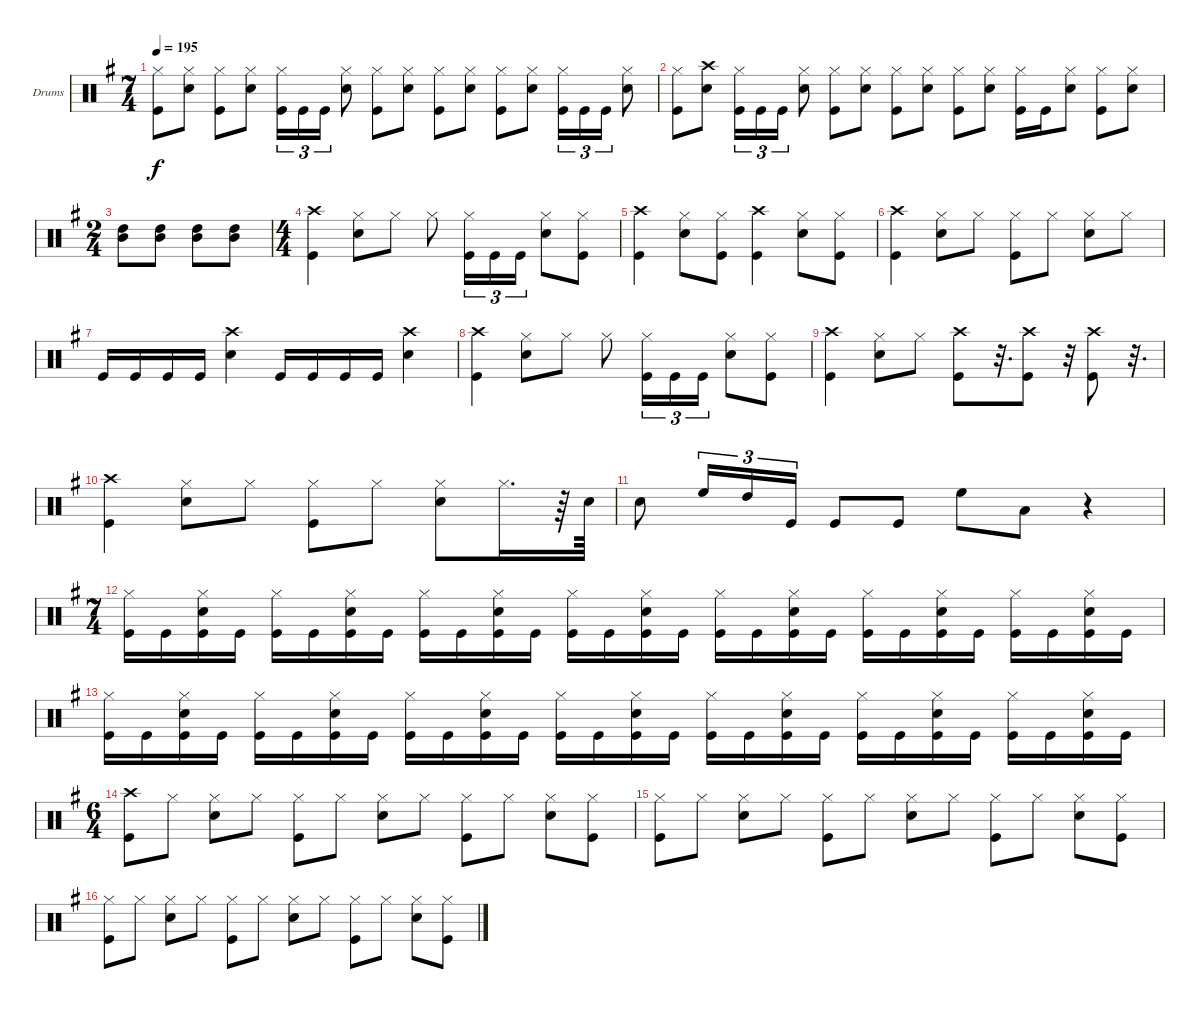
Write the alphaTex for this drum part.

\defaultSystemsLayout 4
\bracketExtendMode groupsimilarinstruments
\firstSystemTrackNameOrientation horizontal
\otherSystemsTrackNameOrientation horizontal
\track ("Drumkit" "Drums") {instrument percussion}
\staff {score}
\articulation defaults
\ts (7 4)
\tempo 195
\clef neutral
\ks g
("Hi-Hat (closed)" "Kick (hit)").8{dy f} ("Snare (hit) 2" "Hi-Hat (closed)").8 ("Hi-Hat (closed)" "Kick (hit)").8 ("Snare (hit) 2" "Hi-Hat (closed)").8 ("Hi-Hat (closed)" "Kick (hit)").16{tu (3 2)} "Kick (hit)".16{tu (3 2)} "Kick (hit)".16{tu (3 2)} ("Snare (hit) 2" "Hi-Hat (closed)").8 ("Hi-Hat (closed)" "Kick (hit)").8 ("Snare (hit) 2" "Hi-Hat (closed)").8 ("Hi-Hat (closed)" "Kick (hit)").8 ("Snare (hit) 2" "Hi-Hat (closed)").8 ("Kick (hit)" "Hi-Hat (closed)").8 ("Snare (hit) 2" "Hi-Hat (closed)").8 ("Kick (hit)" "Hi-Hat (closed)").16{tu (3 2)} "Kick (hit)".16{tu (3 2)} "Kick (hit)".16{tu (3 2)} ("Snare (hit) 2" "Hi-Hat (closed)").8 |
("Kick (hit)" "Hi-Hat (closed)").8 ("Crash high (hit)" "Snare (hit) 2").8 ("Kick (hit)" "Hi-Hat (closed)").16{tu (3 2)} "Kick (hit)".16{tu (3 2)} "Kick (hit)".16{tu (3 2)} ("Snare (hit) 2" "Hi-Hat (closed)").8 ("Hi-Hat (closed)" "Kick (hit)").8 ("Hi-Hat (closed)" "Snare (hit) 2").8 ("Hi-Hat (closed)" "Kick (hit)").8 ("Snare (hit) 2" "Hi-Hat (closed)").8 ("Hi-Hat (closed)" "Kick (hit)").8 ("Snare (hit) 2" "Hi-Hat (closed)").8 ("Hi-Hat (closed)" "Kick (hit)").16 "Kick (hit)".16 ("Snare (hit) 2" "Hi-Hat (closed)").8 ("Hi-Hat (closed)" "Kick (hit)").8 ("Snare (hit) 2" "Hi-Hat (closed)").8 |
\ts (2 4)
("High Tom (hit)" "Mid Tom (hit)").8 ("High Tom (hit)" "Mid Tom (hit)").8 ("High Tom (hit)" "Mid Tom (hit)").8 ("High Tom (hit)" "Mid Tom (hit)").8 |
\ts (4 4)
("Kick (hit)" "Crash high (hit)").4 ("Snare (hit) 2" "Hi-Hat (closed)").8 "Hi-Hat (closed)".8 "Hi-Hat (closed)".8 ("Kick (hit)" "Hi-Hat (closed)").16{tu (3 2)} "Kick (hit)".16{tu (3 2)} "Kick (hit)".16{tu (3 2)} ("Snare (hit) 2" "Hi-Hat (closed)").8 ("Kick (hit)" "Hi-Hat (closed)").8 |
("Kick (hit)" "Crash high (hit)").4 ("Hi-Hat (closed)" "Snare (hit) 2").8 ("Kick (hit)" "Hi-Hat (closed)").8 ("Crash high (hit)" "Kick (hit)").4 ("Hi-Hat (closed)" "Snare (hit) 2").8 ("Kick (hit)" "Hi-Hat (closed)").8 |
("Kick (hit)" "Crash high (hit)").4 ("Hi-Hat (closed)" "Snare (hit) 2").8 "Hi-Hat (closed)".8 ("Hi-Hat (closed)" "Kick (hit)").8 "Hi-Hat (closed)".8 ("Snare (hit) 2" "Hi-Hat (closed)").8 "Hi-Hat (closed)".8 |
"Kick (hit)".16 "Kick (hit)".16 "Kick (hit)".16 "Kick (hit)".16 ("Crash high (hit)" "Snare (hit) 2").4 "Kick (hit)".16 "Kick (hit)".16 "Kick (hit)".16 "Kick (hit)".16 ("Snare (hit) 2" "Crash high (hit)").4 |
("Kick (hit)" "Crash high (hit)").4 ("Snare (hit) 2" "Hi-Hat (closed)").8 "Hi-Hat (closed)".8 "Hi-Hat (closed)".8 ("Kick (hit)" "Hi-Hat (closed)").16{tu (3 2)} "Kick (hit)".16{tu (3 2)} "Kick (hit)".16{tu (3 2)} ("Snare (hit) 2" "Hi-Hat (closed)").8 ("Kick (hit)" "Hi-Hat (closed)").8 |
("Kick (hit)" "Crash high (hit)").4 ("Hi-Hat (closed)" "Snare (hit) 2").8 "Hi-Hat (closed)".8 ("Kick (hit)" "Crash high (hit)").8 r.32{d} ("Kick (hit)" "Crash high (hit)").8 r.32 ("Kick (hit)" "Crash high (hit)").8 r.32{d} |
("Kick (hit)" "Crash high (hit)").4 ("Hi-Hat (closed)" "Snare (hit) 2").8 "Hi-Hat (closed)".8 ("Hi-Hat (closed)" "Kick (hit)").8 "Hi-Hat (closed)".8 ("Snare (hit) 2" "Hi-Hat (closed)").8 "Hi-Hat (closed)".16{d} r.64 "Snare (hit) 2".64 |
"Snare (hit) 2".8 "High Floor Tom (hit)".16{tu (3 2)} "High Tom (hit)".16{tu (3 2)} "Kick (hit)".16{tu (3 2)} "Kick (hit)".8 "Kick (hit)".8 "High Floor Tom (hit)".8 "Low Tom (hit)".8 r.4 |
\ts (7 4)
("Hi-Hat (closed)" "Kick (hit)").16 "Kick (hit)".16 ("Snare (hit) 2" "Hi-Hat (closed)" "Kick (hit)").16 "Kick (hit)".16 ("Hi-Hat (closed)" "Kick (hit)").16 "Kick (hit)".16 ("Snare (hit) 2" "Hi-Hat (closed)" "Kick (hit)").16 "Kick (hit)".16 ("Hi-Hat (closed)" "Kick (hit)").16 "Kick (hit)".16 ("Snare (hit) 2" "Hi-Hat (closed)" "Kick (hit)").16 "Kick (hit)".16 ("Hi-Hat (closed)" "Kick (hit)").16 "Kick (hit)".16 ("Snare (hit) 2" "Hi-Hat (closed)" "Kick (hit)").16 "Kick (hit)".16 ("Hi-Hat (closed)" "Kick (hit)").16 "Kick (hit)".16 ("Snare (hit) 2" "Hi-Hat (closed)" "Kick (hit)").16 "Kick (hit)".16 ("Hi-Hat (closed)" "Kick (hit)").16 "Kick (hit)".16 ("Snare (hit) 2" "Hi-Hat (closed)" "Kick (hit)").16 "Kick (hit)".16 ("Hi-Hat (closed)" "Kick (hit)").16 "Kick (hit)".16 ("Snare (hit) 2" "Hi-Hat (closed)" "Kick (hit)").16 "Kick (hit)".16 |
("Hi-Hat (closed)" "Kick (hit)").16 "Kick (hit)".16 ("Snare (hit) 2" "Hi-Hat (closed)" "Kick (hit)").16 "Kick (hit)".16 ("Hi-Hat (closed)" "Kick (hit)").16 "Kick (hit)".16 ("Snare (hit) 2" "Hi-Hat (closed)" "Kick (hit)").16 "Kick (hit)".16 ("Hi-Hat (closed)" "Kick (hit)").16 "Kick (hit)".16 ("Snare (hit) 2" "Hi-Hat (closed)" "Kick (hit)").16 "Kick (hit)".16 ("Hi-Hat (closed)" "Kick (hit)").16 "Kick (hit)".16 ("Snare (hit) 2" "Hi-Hat (closed)" "Kick (hit)").16 "Kick (hit)".16 ("Hi-Hat (closed)" "Kick (hit)").16 "Kick (hit)".16 ("Snare (hit) 2" "Hi-Hat (closed)" "Kick (hit)").16 "Kick (hit)".16 ("Hi-Hat (closed)" "Kick (hit)").16 "Kick (hit)".16 ("Snare (hit) 2" "Hi-Hat (closed)" "Kick (hit)").16 "Kick (hit)".16 ("Hi-Hat (closed)" "Kick (hit)").16 "Kick (hit)".16 ("Snare (hit) 2" "Hi-Hat (closed)" "Kick (hit)").16 "Kick (hit)".16 |
\ts (6 4)
("Kick (hit)" "Crash high (hit)").8 "Hi-Hat (closed)".8 ("Snare (hit) 2" "Hi-Hat (closed)").8 "Hi-Hat (closed)".8 ("Kick (hit)" "Hi-Hat (closed)").8 "Hi-Hat (closed)".8 ("Snare (hit) 2" "Hi-Hat (closed)").8 "Hi-Hat (closed)".8 ("Kick (hit)" "Hi-Hat (closed)").8 "Hi-Hat (closed)".8 ("Snare (hit) 2" "Hi-Hat (closed)").8 ("Kick (hit)" "Hi-Hat (closed)").8 |
("Hi-Hat (closed)" "Kick (hit)").8 "Hi-Hat (closed)".8 ("Snare (hit) 2" "Hi-Hat (closed)").8 "Hi-Hat (closed)".8 ("Kick (hit)" "Hi-Hat (closed)").8 "Hi-Hat (closed)".8 ("Snare (hit) 2" "Hi-Hat (closed)").8 "Hi-Hat (closed)".8 ("Kick (hit)" "Hi-Hat (closed)").8 "Hi-Hat (closed)".8 ("Snare (hit) 2" "Hi-Hat (closed)").8 ("Kick (hit)" "Hi-Hat (closed)").8 |
("Hi-Hat (closed)" "Kick (hit)").8 "Hi-Hat (closed)".8 ("Snare (hit) 2" "Hi-Hat (closed)").8 "Hi-Hat (closed)".8 ("Kick (hit)" "Hi-Hat (closed)").8 "Hi-Hat (closed)".8 ("Snare (hit) 2" "Hi-Hat (closed)").8 "Hi-Hat (closed)".8 ("Kick (hit)" "Hi-Hat (closed)").8 "Hi-Hat (closed)".8 ("Snare (hit) 2" "Hi-Hat (closed)").8 ("Kick (hit)" "Hi-Hat (closed)").8
